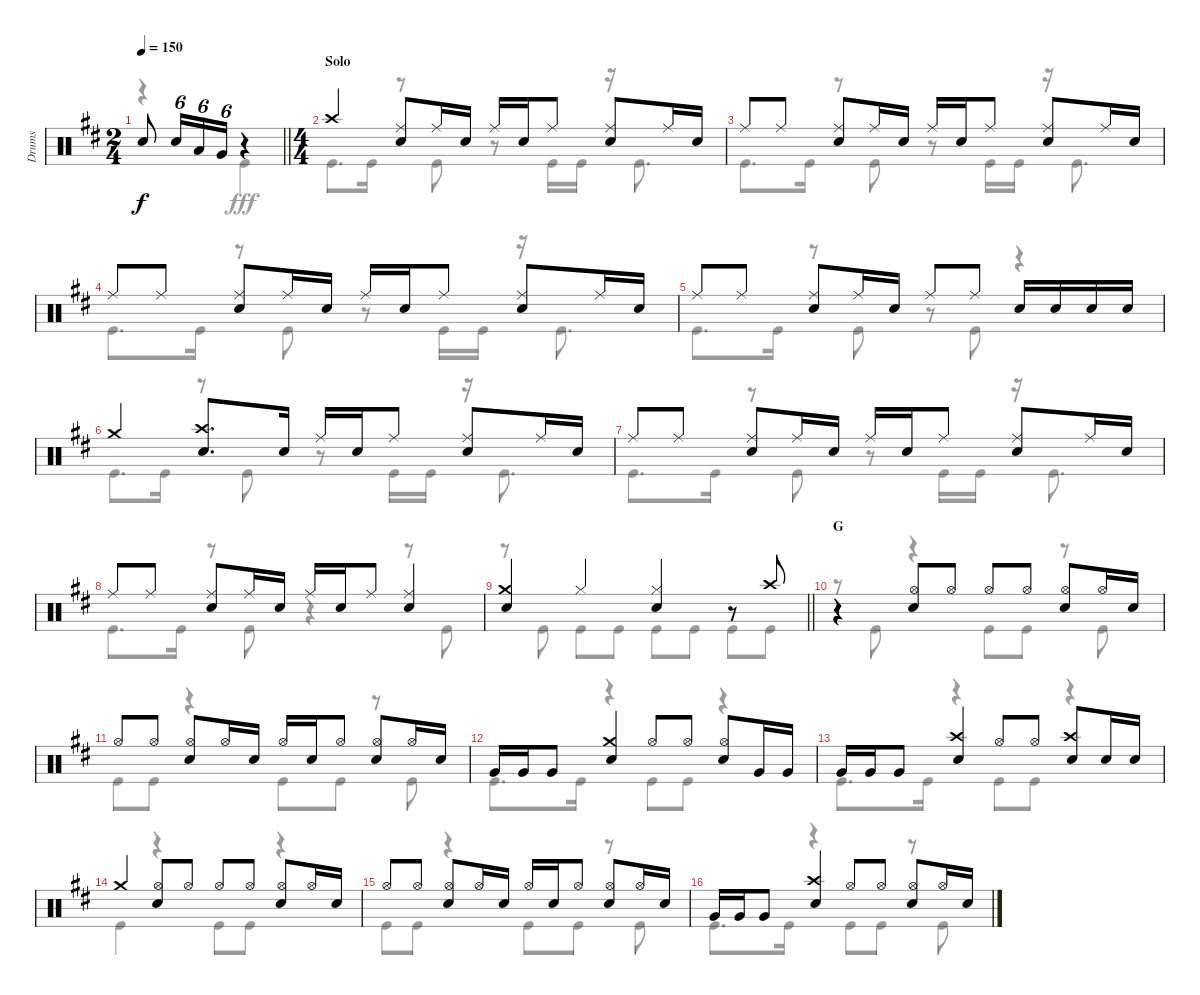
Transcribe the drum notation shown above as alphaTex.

\track ("Drums" "Drums") {instrument percussion}
\staff {score}
\articulation defaults
\voice
\ts (2 4)
\tempo 150
\clef neutral
\barLineRight lightlight
\ks d "Snare (hit) 2".8{dy f} "Snare (hit) 2".16{tu (6 4)} "Low Tom (hit)".16{tu (6 4)} "Very Low Tom (hit)".16{tu (6 4)}
r.4 |
\ts (4 4)
\section ("" "Solo")
"Crash high (hit)".4 ("Ride (middle)" "Snare (hit) 2").8 "Ride (middle)".16 "Snare (hit) 2".16 "Ride (middle)".16 "Snare (hit) 2".16 "Ride (middle)".8 ("Ride (middle)" "Snare (hit) 2").8 "Ride (middle)".16 "Snare (hit) 2".16 |
"Ride (middle)".8 "Ride (middle)".8 ("Ride (middle)" "Snare (hit) 2").8 "Ride (middle)".16 "Snare (hit) 2".16 "Ride (middle)".16 "Snare (hit) 2".16 "Ride (middle)".8 ("Ride (middle)" "Snare (hit) 2").8 "Ride (middle)".16 "Snare (hit) 2".16 |
"Ride (middle)".8 "Ride (middle)".8 ("Ride (middle)" "Snare (hit) 2").8 "Ride (middle)".16 "Snare (hit) 2".16 "Ride (middle)".16 "Snare (hit) 2".16 "Ride (middle)".8 ("Ride (middle)" "Snare (hit) 2").8 "Ride (middle)".16 "Snare (hit) 2".16 |
"Ride (middle)".8 "Ride (middle)".8 ("Ride (middle)" "Snare (hit) 2").8 "Ride (middle)".16 "Snare (hit) 2".16 "Ride (middle)".8 "Ride (middle)".8 "Snare (hit) 2".16 "Snare (hit) 2".16 "Snare (hit) 2".16 "Snare (hit) 2".16 |
"Crash medium (hit)".4 ("Crash high (hit)" "Snare (hit) 2").8{d} "Snare (hit) 2".16 "Ride (middle)".16 "Snare (hit) 2".16 "Ride (middle)".8 ("Ride (middle)" "Snare (hit) 2").8 "Ride (middle)".16 "Snare (hit) 2".16 |
"Ride (middle)".8 "Ride (middle)".8 ("Ride (middle)" "Snare (hit) 2").8 "Ride (middle)".16 "Snare (hit) 2".16 "Ride (middle)".16 "Snare (hit) 2".16 "Ride (middle)".8 ("Ride (middle)" "Snare (hit) 2").8 "Ride (middle)".16 "Snare (hit) 2".16 |
"Ride (middle)".8 "Ride (middle)".8 ("Ride (middle)" "Snare (hit) 2").8 "Ride (middle)".16 "Snare (hit) 2".16 "Ride (middle)".16 "Snare (hit) 2".16 "Ride (middle)".8 ("Ride (middle)" "Snare (hit) 2").4 |
\barLineRight lightlight
("Crash medium (hit)" "Snare (hit) 2").4 "Hi-Hat (closed)".4 ("Hi-Hat (closed)" "Snare (hit) 2").4 r.8 "Crash high (hit)".8 |
\section ("" "G")
r.4 ("Hi-Hat (open)" "Snare (hit) 2").8 "Hi-Hat (open)".8 "Hi-Hat (open)".8 "Hi-Hat (open)".8 ("Hi-Hat (open)" "Snare (hit) 2").8 "Hi-Hat (open)".16 "Snare (hit) 2".16 |
"Hi-Hat (open)".8 "Hi-Hat (open)".8 ("Hi-Hat (open)" "Snare (hit) 2").8 "Hi-Hat (open)".16 "Snare (hit) 2".16 "Hi-Hat (open)".16 "Snare (hit) 2".16 "Hi-Hat (open)".8 ("Hi-Hat (open)" "Snare (hit) 2").8 "Hi-Hat (open)".16 "Snare (hit) 2".16 |
"Very Low Tom (hit)".16 "Very Low Tom (hit)".16 "Very Low Tom (hit)".8 ("Crash medium (hit)" "Snare (hit) 2").4 "Hi-Hat (open)".8 "Hi-Hat (open)".8 ("Hi-Hat (open)" "Snare (hit) 2").8 "Very Low Tom (hit)".16 "Very Low Tom (hit)".16 |
"Very Low Tom (hit)".16 "Very Low Tom (hit)".16 "Very Low Tom (hit)".8 ("Crash high (hit)" "Snare (hit) 2").4 "Hi-Hat (open)".8 "Hi-Hat (open)".8 ("Crash high (hit)" "Snare (hit) 2").8 "Snare (hit) 2".16 "Snare (hit) 2".16 |
"Crash medium (hit)".4 ("Hi-Hat (open)" "Snare (hit) 2").8 "Hi-Hat (open)".8 "Hi-Hat (open)".8 "Hi-Hat (open)".8 ("Hi-Hat (open)" "Snare (hit) 2").8 "Hi-Hat (open)".16 "Snare (hit) 2".16 |
"Hi-Hat (open)".8 "Hi-Hat (open)".8 ("Hi-Hat (open)" "Snare (hit) 2").8 "Hi-Hat (open)".16 "Snare (hit) 2".16 "Hi-Hat (open)".16 "Snare (hit) 2".16 "Hi-Hat (open)".8 ("Hi-Hat (open)" "Snare (hit) 2").8 "Hi-Hat (open)".16 "Snare (hit) 2".16 |
"Very Low Tom (hit)".16 "Very Low Tom (hit)".16 "Very Low Tom (hit)".8 ("Crash high (hit)" "Snare (hit) 2").4 "Hi-Hat (open)".8 "Hi-Hat (open)".8 ("Hi-Hat (open)" "Snare (hit) 2").8 "Hi-Hat (open)".16 "Snare (hit) 2".16
\voice
\clef neutral
\ottava regular
\simile none
\barLineRight lightlight
\ks d
r.4{dy fff} "Kick (hit)".4 |
"Kick (hit)".8{d} "Kick (hit)".16 r.8 "Kick (hit)".8 r.8 "Kick (hit)".16 "Kick (hit)".16 r.16 "Kick (hit)".8{d} |
"Kick (hit)".8{d} "Kick (hit)".16 r.8 "Kick (hit)".8 r.8 "Kick (hit)".16 "Kick (hit)".16 r.16 "Kick (hit)".8{d} |
"Kick (hit)".8{d} "Kick (hit)".16 r.8 "Kick (hit)".8 r.8 "Kick (hit)".16 "Kick (hit)".16 r.16 "Kick (hit)".8{d} |
"Kick (hit)".8{d} "Kick (hit)".16 r.8 "Kick (hit)".8 r.8 "Kick (hit)".8 r.4 |
"Kick (hit)".8{d} "Kick (hit)".16 r.8 "Kick (hit)".8 r.8 "Kick (hit)".16 "Kick (hit)".16 r.16 "Kick (hit)".8{d} |
"Kick (hit)".8{d} "Kick (hit)".16 r.8 "Kick (hit)".8 r.8 "Kick (hit)".16 "Kick (hit)".16 r.16 "Kick (hit)".8{d} |
"Kick (hit)".8{d} "Kick (hit)".16 r.8 "Kick (hit)".8 r.4 r.8 "Kick (hit)".8 |
\barLineRight lightlight
r.8 "Kick (hit)".8 "Kick (hit)".8 "Kick (hit)".8 "Kick (hit)".8 "Kick (hit)".8 "Kick (hit)".8 "Kick (hit)".8 |
r.8 "Kick (hit)".8 r.4 "Kick (hit)".8 "Kick (hit)".8 r.8 "Kick (hit)".8 |
"Kick (hit)".8 "Kick (hit)".8 r.4 "Kick (hit)".8 "Kick (hit)".8 r.8 "Kick (hit)".8 |
"Kick (hit)".8{d} "Kick (hit)".16 r.4 "Kick (hit)".8 "Kick (hit)".8 r.4 |
"Kick (hit)".8{d} "Kick (hit)".16 r.4 "Kick (hit)".8 "Kick (hit)".8 r.4 |
"Kick (hit)".4 r.4 "Kick (hit)".8 "Kick (hit)".8 r.4 |
"Kick (hit)".8 "Kick (hit)".8 r.4 "Kick (hit)".8 "Kick (hit)".8 r.8 "Kick (hit)".8 |
"Kick (hit)".8{d} "Kick (hit)".16 r.4 "Kick (hit)".8 "Kick (hit)".8 r.8 "Kick (hit)".8
